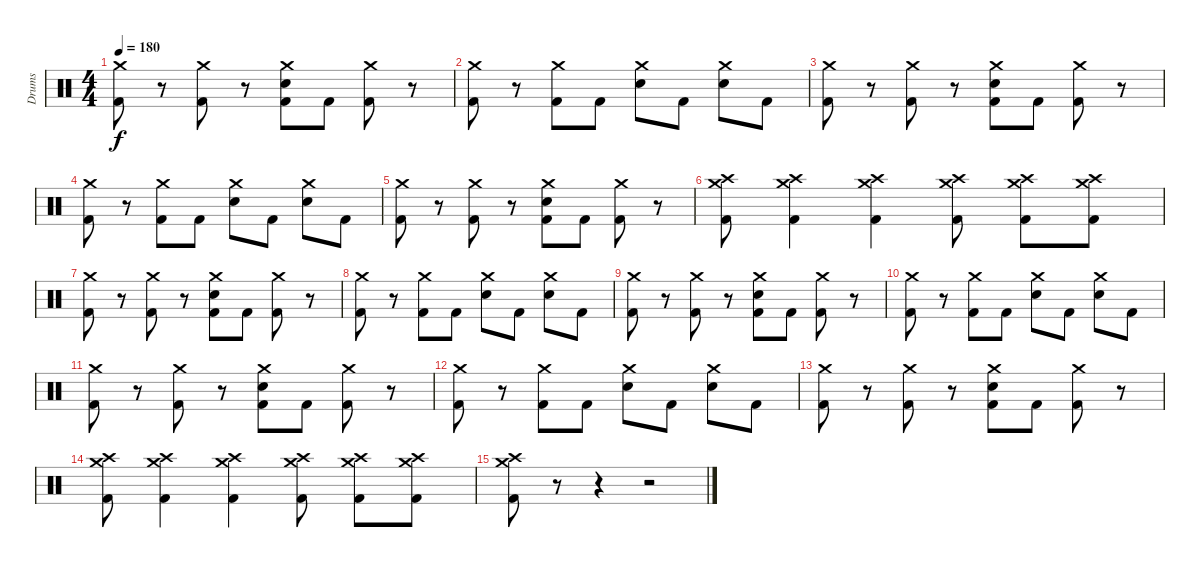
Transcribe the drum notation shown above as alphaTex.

\track ("Drums" "Drums") {instrument percussion}
\staff {score}
\articulation defaults
\ts (4 4)
\tempo 180
\clef neutral
\ks c
("Crash medium (hit)" "Kick (hit) 2").8{dy f} r.8 ("Crash medium (hit)" "Kick (hit) 2").8 r.8 ("Crash medium (hit)" "Snare (hit) 2" "Kick (hit) 2").8 "Kick (hit) 2".8 ("Crash medium (hit)" "Kick (hit) 2").8 r.8 |
("Crash medium (hit)" "Kick (hit) 2").8 r.8 ("Crash medium (hit)" "Kick (hit) 2").8 "Kick (hit) 2".8 ("Crash medium (hit)" "Snare (hit) 2").8 "Kick (hit) 2".8 ("Crash medium (hit)" "Snare (hit) 2").8 "Kick (hit) 2".8 |
("Crash medium (hit)" "Kick (hit) 2").8 r.8 ("Crash medium (hit)" "Kick (hit) 2").8 r.8 ("Crash medium (hit)" "Snare (hit) 2" "Kick (hit) 2").8 "Kick (hit) 2".8 ("Crash medium (hit)" "Kick (hit) 2").8 r.8 |
("Crash medium (hit)" "Kick (hit) 2").8 r.8 ("Crash medium (hit)" "Kick (hit) 2").8 "Kick (hit) 2".8 ("Crash medium (hit)" "Snare (hit) 2").8 "Kick (hit) 2".8 ("Crash medium (hit)" "Snare (hit) 2").8 "Kick (hit) 2".8 |
("Crash medium (hit)" "Kick (hit) 2").8 r.8 ("Crash medium (hit)" "Kick (hit) 2").8 r.8 ("Crash medium (hit)" "Snare (hit) 2" "Kick (hit) 2").8 "Kick (hit) 2".8 ("Crash medium (hit)" "Kick (hit) 2").8 r.8 |
("Crash high (hit)" "Crash medium (hit)" "Kick (hit) 2").8 ("Crash high (hit)" "Crash medium (hit)" "Kick (hit) 2").4 ("Crash high (hit)" "Crash medium (hit)" "Kick (hit) 2").4 ("Crash high (hit)" "Crash medium (hit)" "Kick (hit) 2").8 ("Crash high (hit)" "Crash medium (hit)" "Kick (hit) 2").8 ("Crash high (hit)" "Crash medium (hit)" "Kick (hit) 2").8 |
("Crash medium (hit)" "Kick (hit) 2").8 r.8 ("Crash medium (hit)" "Kick (hit) 2").8 r.8 ("Crash medium (hit)" "Snare (hit) 2" "Kick (hit) 2").8 "Kick (hit) 2".8 ("Crash medium (hit)" "Kick (hit) 2").8 r.8 |
("Crash medium (hit)" "Kick (hit) 2").8 r.8 ("Crash medium (hit)" "Kick (hit) 2").8 "Kick (hit) 2".8 ("Crash medium (hit)" "Snare (hit) 2").8 "Kick (hit) 2".8 ("Crash medium (hit)" "Snare (hit) 2").8 "Kick (hit) 2".8 |
("Crash medium (hit)" "Kick (hit) 2").8 r.8 ("Crash medium (hit)" "Kick (hit) 2").8 r.8 ("Crash medium (hit)" "Snare (hit) 2" "Kick (hit) 2").8 "Kick (hit) 2".8 ("Crash medium (hit)" "Kick (hit) 2").8 r.8 |
("Crash medium (hit)" "Kick (hit) 2").8 r.8 ("Crash medium (hit)" "Kick (hit) 2").8 "Kick (hit) 2".8 ("Crash medium (hit)" "Snare (hit) 2").8 "Kick (hit) 2".8 ("Crash medium (hit)" "Snare (hit) 2").8 "Kick (hit) 2".8 |
("Crash medium (hit)" "Kick (hit) 2").8 r.8 ("Crash medium (hit)" "Kick (hit) 2").8 r.8 ("Crash medium (hit)" "Snare (hit) 2" "Kick (hit) 2").8 "Kick (hit) 2".8 ("Crash medium (hit)" "Kick (hit) 2").8 r.8 |
("Crash medium (hit)" "Kick (hit) 2").8 r.8 ("Crash medium (hit)" "Kick (hit) 2").8 "Kick (hit) 2".8 ("Crash medium (hit)" "Snare (hit) 2").8 "Kick (hit) 2".8 ("Crash medium (hit)" "Snare (hit) 2").8 "Kick (hit) 2".8 |
("Crash medium (hit)" "Kick (hit) 2").8 r.8 ("Crash medium (hit)" "Kick (hit) 2").8 r.8 ("Crash medium (hit)" "Snare (hit) 2" "Kick (hit) 2").8 "Kick (hit) 2".8 ("Crash medium (hit)" "Kick (hit) 2").8 r.8 |
("Crash high (hit)" "Crash medium (hit)" "Kick (hit) 2").8 ("Crash high (hit)" "Crash medium (hit)" "Kick (hit) 2").4 ("Crash high (hit)" "Crash medium (hit)" "Kick (hit) 2").4 ("Crash high (hit)" "Crash medium (hit)" "Kick (hit) 2").8 ("Crash high (hit)" "Crash medium (hit)" "Kick (hit) 2").8 ("Crash high (hit)" "Crash medium (hit)" "Kick (hit) 2").8 |
("Crash high (hit)" "Crash medium (hit)" "Kick (hit) 2").8 r.8 r.4 r.2
